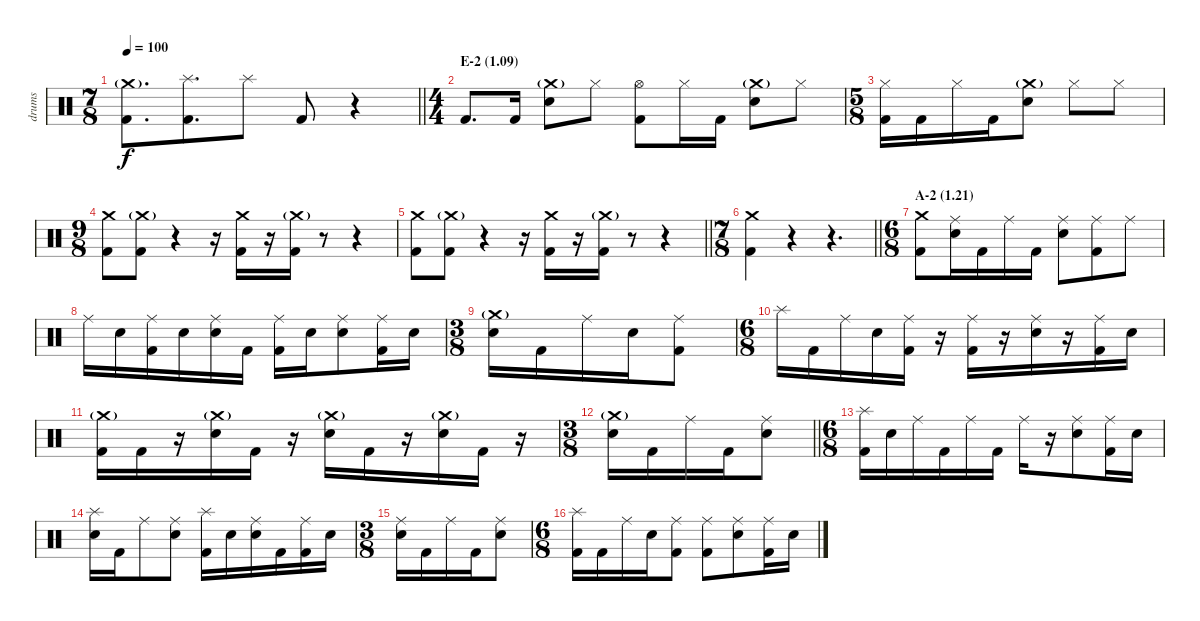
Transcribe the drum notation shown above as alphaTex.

\track ("drums" "drums") {instrument percussion}
\staff {score}
\articulation defaults
\ts (7 8)
\tempo 100
\clef neutral
\barLineRight lightlight
\ks c
("Crash medium (hit)"{g} "Kick (hit) 2").8{d dy f} ("Splash (hit)" "Kick (hit) 2").8{d} "Splash (hit)".8 "Kick (hit) 2".8 r.4 |
\ts (4 4)
\section ("" "E-2 (1.09)")
"Kick (hit) 2".8{d} "Kick (hit) 2".16 ("Crash medium (hit)"{g} "Electric Snare (hit)").8 "Hi-Hat (closed)".8 ("Hi-Hat (open)" "Kick (hit) 2").8 "Hi-Hat (closed)".16 "Kick (hit) 2".16 ("Crash medium (hit)"{g} "Electric Snare (hit)").8 "Hi-Hat (closed)".8 |
\ts (5 8)
("Hi-Hat (closed)" "Kick (hit) 2").16 "Kick (hit) 2".16 "Hi-Hat (closed)".16 "Kick (hit) 2".16 ("Crash medium (hit)"{g} "Electric Snare (hit)").8 "Hi-Hat (closed)".8 "Hi-Hat (closed)".8 |
\ts (9 8)
("Crash medium (hit)" "Kick (hit) 2").8 ("Crash medium (hit)"{g} "Kick (hit) 2").8 r.4 r.16 ("Crash medium (hit)" "Kick (hit) 2").16 r.16 ("Crash medium (hit)"{g} "Kick (hit) 2").16 r.8 r.4 |
\barLineRight lightlight
("Crash medium (hit)" "Kick (hit) 2").8 ("Crash medium (hit)"{g} "Kick (hit) 2").8 r.4 r.16 ("Crash medium (hit)" "Kick (hit) 2").16 r.16 ("Crash medium (hit)"{g} "Kick (hit) 2").16 r.8 r.4 |
\ts (7 8)
\barLineRight lightlight
("Crash medium (hit)" "Kick (hit) 2").4 r.4 r.4{d} |
\ts (6 8)
\section ("" "A-2 (1.21)")
("Crash medium (hit)" "Kick (hit) 2").8 ("Ride (middle)" "Electric Snare (hit)").16 "Kick (hit) 2".16 "Ride (middle)".16 "Kick (hit) 2".16 ("Ride (middle)" "Electric Snare (hit)").8 ("Ride (middle)" "Kick (hit) 2").8 "Ride (middle)".8 |
"Ride (middle)".16 "Electric Snare (hit)".16 ("Ride (middle)" "Kick (hit) 2").16 "Electric Snare (hit)".16 ("Ride (middle)" "Electric Snare (hit)").16 "Kick (hit) 2".16 ("Ride (middle)" "Kick (hit) 2").16 "Electric Snare (hit)".16 ("Ride (middle)" "Electric Snare (hit)").8 ("Ride (middle)" "Kick (hit) 2").16 "Electric Snare (hit)".16 |
\ts (3 8)
("Crash medium (hit)"{g} "Electric Snare (hit)").16 "Kick (hit) 2".16 "Ride (middle)".16 "Electric Snare (hit)".16 ("Ride (middle)" "Kick (hit) 2").8 |
\ts (6 8)
"Splash (hit)".16 "Kick (hit) 2".16 "Ride (middle)".16 "Electric Snare (hit)".16 ("Ride (middle)" "Kick (hit) 2").16 r.16 ("Ride (middle)" "Kick (hit) 2").16 r.16 ("Ride (middle)" "Electric Snare (hit)").16 r.16 ("Ride (middle)" "Kick (hit) 2").16 "Electric Snare (hit)".16 |
("Crash medium (hit)"{g} "Kick (hit) 2").16 "Kick (hit) 2".16 r.16 ("Crash medium (hit)"{g} "Electric Snare (hit)").16 "Kick (hit) 2".16 r.16 ("Crash medium (hit)"{g} "Electric Snare (hit)").16 "Kick (hit) 2".16 r.16 ("Crash medium (hit)"{g} "Electric Snare (hit)").16 "Kick (hit) 2".16 r.16 |
\ts (3 8)
\barLineRight lightlight
("Crash medium (hit)"{g} "Electric Snare (hit)").16 "Kick (hit) 2".16 "Ride (middle)".16 "Kick (hit) 2".16 ("Ride (middle)" "Electric Snare (hit)").8 |
\ts (6 8)
("Splash (hit)" "Kick (hit) 2").16 "Electric Snare (hit)".16 "Ride (middle)".16 "Kick (hit) 2".16 "Ride (middle)".16 "Kick (hit) 2".16 "Ride (middle)".16 r.16 ("Ride (middle)" "Electric Snare (hit)").8 ("Ride (middle)" "Kick (hit) 2").16 "Electric Snare (hit)".16 |
("Splash (hit)" "Electric Snare (hit)").16 "Kick (hit) 2".16 "Ride (middle)".8 ("Ride (middle)" "Electric Snare (hit)").8 ("Splash (hit)" "Kick (hit) 2").16 "Electric Snare (hit)".16 ("Ride (middle)" "Electric Snare (hit)").16 "Kick (hit) 2".16 ("Ride (middle)" "Kick (hit) 2").16 "Electric Snare (hit)".16 |
\ts (3 8)
("Ride (middle)" "Electric Snare (hit)").16 "Kick (hit) 2".16 "Ride (middle)".16 "Kick (hit) 2".16 ("Ride (middle)" "Electric Snare (hit)").8 |
\ts (6 8)
("Splash (hit)" "Kick (hit) 2").16 "Kick (hit) 2".16 "Ride (middle)".16 "Electric Snare (hit)".16 ("Ride (middle)" "Kick (hit) 2").8 ("Ride (middle)" "Kick (hit) 2").8 ("Ride (middle)" "Electric Snare (hit)").8 ("Ride (middle)" "Kick (hit) 2").16 "Electric Snare (hit)".16
